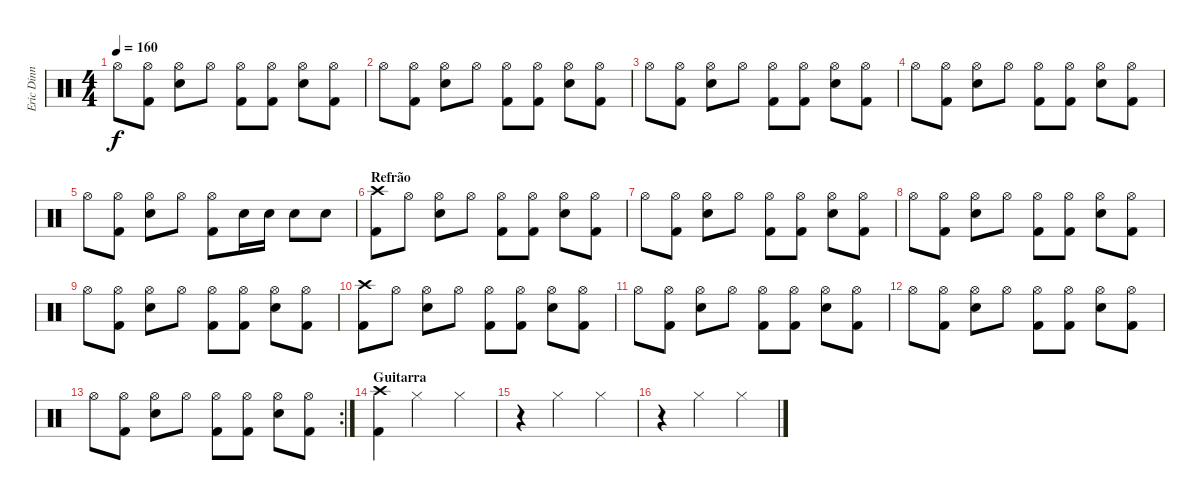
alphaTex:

\track ("Eric Dinn" "Eric Dinn") {instrument percussion}
\staff {score}
\articulation defaults
\ts (4 4)
\tempo 160
\clef neutral
\ks c "Hi-Hat (open)".8{dy f}
("Hi-Hat (open)" "Kick (hit) 2").8 ("Hi-Hat (open)" "Snare (hit) 2").8 "Hi-Hat (open)".8 ("Hi-Hat (open)" "Kick (hit) 2").8 ("Hi-Hat (open)" "Kick (hit) 2").8 ("Hi-Hat (open)" "Snare (hit) 2").8 ("Hi-Hat (open)" "Kick (hit) 2").8 |
"Hi-Hat (open)".8 ("Hi-Hat (open)" "Kick (hit) 2").8 ("Hi-Hat (open)" "Snare (hit) 2").8 "Hi-Hat (open)".8 ("Hi-Hat (open)" "Kick (hit) 2").8 ("Hi-Hat (open)" "Kick (hit) 2").8 ("Hi-Hat (open)" "Snare (hit) 2").8 ("Hi-Hat (open)" "Kick (hit) 2").8 |
"Hi-Hat (open)".8 ("Hi-Hat (open)" "Kick (hit) 2").8 ("Hi-Hat (open)" "Snare (hit) 2").8 "Hi-Hat (open)".8 ("Hi-Hat (open)" "Kick (hit) 2").8 ("Hi-Hat (open)" "Kick (hit) 2").8 ("Hi-Hat (open)" "Snare (hit) 2").8 ("Hi-Hat (open)" "Kick (hit) 2").8 |
"Hi-Hat (open)".8 ("Hi-Hat (open)" "Kick (hit) 2").8 ("Hi-Hat (open)" "Snare (hit) 2").8 "Hi-Hat (open)".8 ("Hi-Hat (open)" "Kick (hit) 2").8 ("Hi-Hat (open)" "Kick (hit) 2").8 ("Hi-Hat (open)" "Snare (hit) 2").8 ("Hi-Hat (open)" "Kick (hit) 2").8 |
"Hi-Hat (open)".8 ("Hi-Hat (open)" "Kick (hit) 2").8 ("Hi-Hat (open)" "Snare (hit) 2").8 "Hi-Hat (open)".8 ("Hi-Hat (open)" "Kick (hit) 2").8 "Snare (hit) 2".16 "Snare (hit) 2".16 "Snare (hit) 2".8 "Snare (hit) 2".8 |
\section ("" "Refrão")
("Crash high (hit)" "Kick (hit) 2").8 "Hi-Hat (open)".8 ("Hi-Hat (open)" "Snare (hit) 2").8 "Hi-Hat (open)".8 ("Hi-Hat (open)" "Kick (hit) 2").8 ("Hi-Hat (open)" "Kick (hit) 2").8 ("Hi-Hat (open)" "Snare (hit) 2").8 ("Hi-Hat (open)" "Kick (hit) 2").8 |
"Hi-Hat (open)".8 ("Hi-Hat (open)" "Kick (hit) 2").8 ("Hi-Hat (open)" "Snare (hit) 2").8 "Hi-Hat (open)".8 ("Hi-Hat (open)" "Kick (hit) 2").8 ("Hi-Hat (open)" "Kick (hit) 2").8 ("Hi-Hat (open)" "Snare (hit) 2").8 ("Hi-Hat (open)" "Kick (hit) 2").8 |
"Hi-Hat (open)".8 ("Hi-Hat (open)" "Kick (hit) 2").8 ("Hi-Hat (open)" "Snare (hit) 2").8 "Hi-Hat (open)".8 ("Hi-Hat (open)" "Kick (hit) 2").8 ("Hi-Hat (open)" "Kick (hit) 2").8 ("Hi-Hat (open)" "Snare (hit) 2").8 ("Hi-Hat (open)" "Kick (hit) 2").8 |
"Hi-Hat (open)".8 ("Hi-Hat (open)" "Kick (hit) 2").8 ("Hi-Hat (open)" "Snare (hit) 2").8 "Hi-Hat (open)".8 ("Hi-Hat (open)" "Kick (hit) 2").8 ("Hi-Hat (open)" "Kick (hit) 2").8 ("Hi-Hat (open)" "Snare (hit) 2").8 ("Hi-Hat (open)" "Kick (hit) 2").8 |
("Crash high (hit)" "Kick (hit) 2").8 "Hi-Hat (open)".8 ("Hi-Hat (open)" "Snare (hit) 2").8 "Hi-Hat (open)".8 ("Hi-Hat (open)" "Kick (hit) 2").8 ("Hi-Hat (open)" "Kick (hit) 2").8 ("Hi-Hat (open)" "Snare (hit) 2").8 ("Hi-Hat (open)" "Kick (hit) 2").8 |
"Hi-Hat (open)".8 ("Hi-Hat (open)" "Kick (hit) 2").8 ("Hi-Hat (open)" "Snare (hit) 2").8 "Hi-Hat (open)".8 ("Hi-Hat (open)" "Kick (hit) 2").8 ("Hi-Hat (open)" "Kick (hit) 2").8 ("Hi-Hat (open)" "Snare (hit) 2").8 ("Hi-Hat (open)" "Kick (hit) 2").8 |
"Hi-Hat (open)".8 ("Hi-Hat (open)" "Kick (hit) 2").8 ("Hi-Hat (open)" "Snare (hit) 2").8 "Hi-Hat (open)".8 ("Hi-Hat (open)" "Kick (hit) 2").8 ("Hi-Hat (open)" "Kick (hit) 2").8 ("Hi-Hat (open)" "Snare (hit) 2").8 ("Hi-Hat (open)" "Kick (hit) 2").8 |
\rc 2 "Hi-Hat (open)".8
("Hi-Hat (open)" "Kick (hit) 2").8 ("Hi-Hat (open)" "Snare (hit) 2").8 "Hi-Hat (open)".8 ("Hi-Hat (open)" "Kick (hit) 2").8 ("Hi-Hat (open)" "Kick (hit) 2").8 ("Hi-Hat (open)" "Snare (hit) 2").8 ("Hi-Hat (open)" "Kick (hit) 2").8 |
\section ("" "Guitarra")
("Crash high (hit)" "Kick (hit) 2").4 "Hi-Hat (closed)".2 "Hi-Hat (closed)".4 |
r.4 "Hi-Hat (closed)".2 "Hi-Hat (closed)".4 |
r.4 "Hi-Hat (closed)".2 "Hi-Hat (closed)".4
